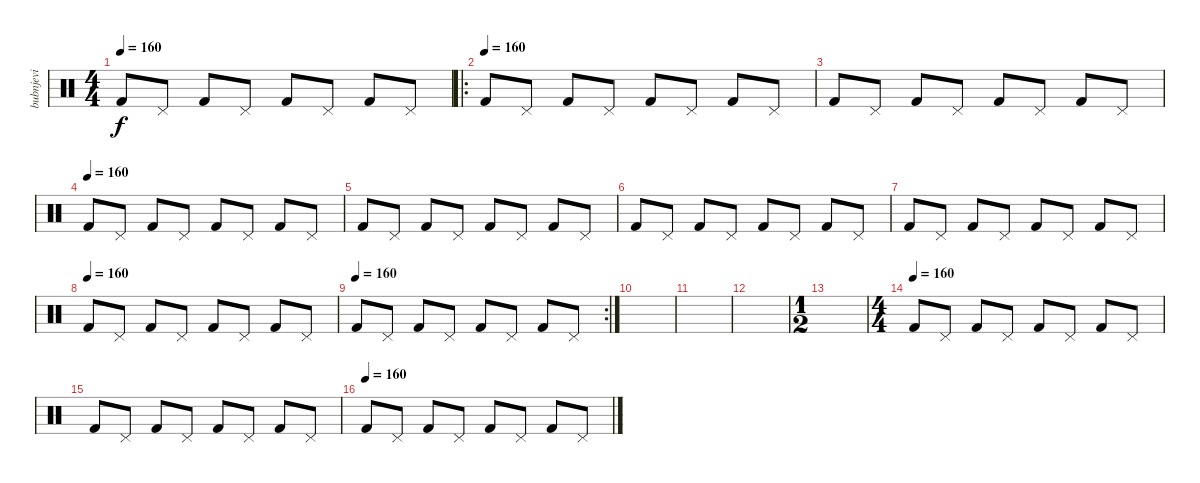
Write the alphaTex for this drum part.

\track ("bubnjevi" "bubnjevi") {instrument percussion}
\staff {score}
\articulation defaults
\ts (4 4)
\tempo 160
\clef neutral
\ks c "Kick (hit) 2".8{dy f} "Pedal Hi-Hat (hit)".8 "Kick (hit) 2".8 "Pedal Hi-Hat (hit)".8 "Kick (hit) 2".8 "Pedal Hi-Hat (hit)".8 "Kick (hit) 2".8 "Pedal Hi-Hat (hit)".8
|
\ro
\tempo 165
\tempo (160)
"Kick (hit) 2".8 "Pedal Hi-Hat (hit)".8 "Kick (hit) 2".8 "Pedal Hi-Hat (hit)".8 "Kick (hit) 2".8 "Pedal Hi-Hat (hit)".8 "Kick (hit) 2".8 "Pedal Hi-Hat (hit)".8 |
"Kick (hit) 2".8 "Pedal Hi-Hat (hit)".8 "Kick (hit) 2".8 "Pedal Hi-Hat (hit)".8 "Kick (hit) 2".8 "Pedal Hi-Hat (hit)".8 "Kick (hit) 2".8 "Pedal Hi-Hat (hit)".8 |
\tempo 165
\tempo (160)
"Kick (hit) 2".8 "Pedal Hi-Hat (hit)".8 "Kick (hit) 2".8 "Pedal Hi-Hat (hit)".8 "Kick (hit) 2".8 "Pedal Hi-Hat (hit)".8 "Kick (hit) 2".8 "Pedal Hi-Hat (hit)".8 |
"Kick (hit) 2".8 "Pedal Hi-Hat (hit)".8 "Kick (hit) 2".8 "Pedal Hi-Hat (hit)".8 "Kick (hit) 2".8 "Pedal Hi-Hat (hit)".8 "Kick (hit) 2".8 "Pedal Hi-Hat (hit)".8 |
"Kick (hit) 2".8 "Pedal Hi-Hat (hit)".8 "Kick (hit) 2".8 "Pedal Hi-Hat (hit)".8 "Kick (hit) 2".8 "Pedal Hi-Hat (hit)".8 "Kick (hit) 2".8 "Pedal Hi-Hat (hit)".8 |
"Kick (hit) 2".8 "Pedal Hi-Hat (hit)".8 "Kick (hit) 2".8 "Pedal Hi-Hat (hit)".8 "Kick (hit) 2".8 "Pedal Hi-Hat (hit)".8 "Kick (hit) 2".8 "Pedal Hi-Hat (hit)".8 |
\tempo 165
\tempo (160)
"Kick (hit) 2".8 "Pedal Hi-Hat (hit)".8 "Kick (hit) 2".8 "Pedal Hi-Hat (hit)".8 "Kick (hit) 2".8 "Pedal Hi-Hat (hit)".8 "Kick (hit) 2".8 "Pedal Hi-Hat (hit)".8 |
\rc 2
\tempo 165
\tempo (160)
"Kick (hit) 2".8 "Pedal Hi-Hat (hit)".8 "Kick (hit) 2".8 "Pedal Hi-Hat (hit)".8 "Kick (hit) 2".8 "Pedal Hi-Hat (hit)".8 "Kick (hit) 2".8 "Pedal Hi-Hat (hit)".8 |
|
|
|
\ts (1 2)
|
\ts (4 4)
\tempo 165
\tempo (160)
"Kick (hit) 2".8 "Pedal Hi-Hat (hit)".8 "Kick (hit) 2".8 "Pedal Hi-Hat (hit)".8 "Kick (hit) 2".8 "Pedal Hi-Hat (hit)".8 "Kick (hit) 2".8 "Pedal Hi-Hat (hit)".8 |
"Kick (hit) 2".8 "Pedal Hi-Hat (hit)".8 "Kick (hit) 2".8 "Pedal Hi-Hat (hit)".8 "Kick (hit) 2".8 "Pedal Hi-Hat (hit)".8 "Kick (hit) 2".8 "Pedal Hi-Hat (hit)".8 |
\tempo (160)
"Kick (hit) 2".8 "Pedal Hi-Hat (hit)".8 "Kick (hit) 2".8 "Pedal Hi-Hat (hit)".8 "Kick (hit) 2".8 "Pedal Hi-Hat (hit)".8 "Kick (hit) 2".8 "Pedal Hi-Hat (hit)".8
